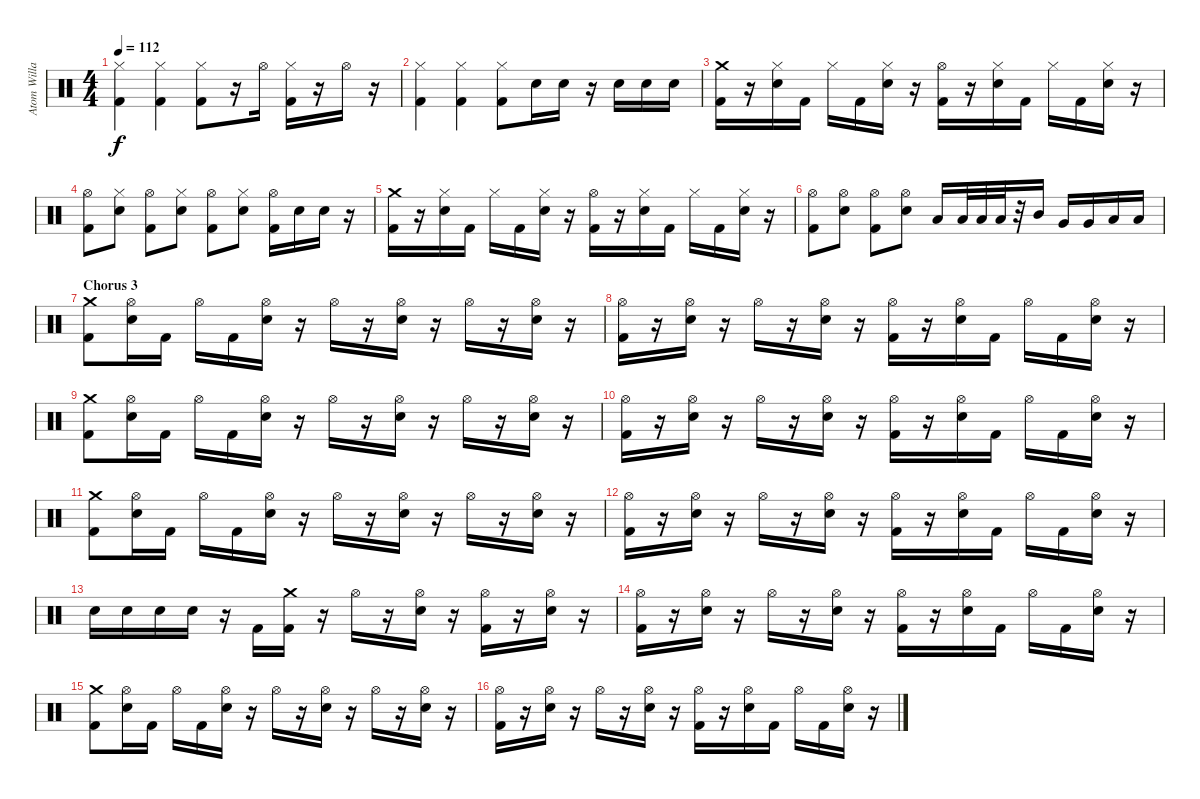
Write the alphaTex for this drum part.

\track ("Atom Willard Drums" "Atom Willa") {instrument percussion}
\staff {score}
\articulation defaults
\ts (4 4)
\tempo 112
\clef neutral
\ks c
("Hi-Hat (closed)" "Kick (hit) 2").4{dy f} ("Hi-Hat (closed)" "Kick (hit) 2").4 ("Hi-Hat (closed)" "Kick (hit) 2").8 r.16 "Hi-Hat (open)".16 ("Hi-Hat (closed)" "Kick (hit) 2").16 r.16 "Hi-Hat (open)".16 r.16 |
("Hi-Hat (closed)" "Kick (hit) 2").4 ("Hi-Hat (closed)" "Kick (hit) 2").4 ("Hi-Hat (closed)" "Kick (hit) 2").8 "Electric Snare (hit)".16 "Electric Snare (hit)".16 r.16 "Electric Snare (hit)".16 "Electric Snare (hit)".16 "Electric Snare (hit)".16 |
("Crash medium (hit)" "Kick (hit) 2").16 r.16 ("Hi-Hat (closed)" "Electric Snare (hit)").16 "Kick (hit) 2".16 "Hi-Hat (closed)".16 "Kick (hit) 2".16 ("Hi-Hat (closed)" "Electric Snare (hit)").16 r.16 ("Hi-Hat (open)" "Kick (hit) 2").16 r.16 ("Hi-Hat (closed)" "Electric Snare (hit)").16 "Kick (hit) 2".16 "Hi-Hat (closed)".16 "Kick (hit) 2".16 ("Hi-Hat (closed)" "Electric Snare (hit)").16 r.16 |
("Hi-Hat (open)" "Kick (hit) 2").8 ("Hi-Hat (closed)" "Electric Snare (hit)").8 ("Hi-Hat (open)" "Kick (hit) 2").8 ("Hi-Hat (closed)" "Electric Snare (hit)").8 ("Hi-Hat (open)" "Kick (hit) 2").8 ("Hi-Hat (closed)" "Electric Snare (hit)").8 ("Hi-Hat (open)" "Kick (hit) 2").16 "Electric Snare (hit)".16 "Electric Snare (hit)".16 r.16 |
("Crash medium (hit)" "Kick (hit) 2").16 r.16 ("Hi-Hat (closed)" "Electric Snare (hit)").16 "Kick (hit) 2".16 "Hi-Hat (closed)".16 "Kick (hit) 2".16 ("Hi-Hat (closed)" "Electric Snare (hit)").16 r.16 ("Hi-Hat (open)" "Kick (hit) 2").16 r.16 ("Hi-Hat (closed)" "Electric Snare (hit)").16 "Kick (hit) 2".16 "Hi-Hat (closed)".16 "Kick (hit) 2".16 ("Hi-Hat (closed)" "Electric Snare (hit)").16 r.16 |
("Hi-Hat (open)" "Kick (hit) 2").8 ("Hi-Hat (open)" "Electric Snare (hit)").8 ("Hi-Hat (open)" "Kick (hit) 2").8 ("Hi-Hat (open)" "Electric Snare (hit)").8 "Low Tom (hit)".16 "Low Tom (hit)".32 "Low Tom (hit)".32 "Low Tom (hit)".32 r.32 "Mid Tom (hit)".16 "Very Low Tom (hit)".16 "Very Low Tom (hit)".16 "Low Floor Tom (hit)".16 "Low Floor Tom (hit)".16 |
\section ("" "Chorus 3")
("Crash medium (hit)" "Kick (hit) 2").8 ("Hi-Hat (open)" "Electric Snare (hit)").16 "Kick (hit) 2".16 "Hi-Hat (open)".16 "Kick (hit) 2".16 ("Hi-Hat (open)" "Electric Snare (hit)").16 r.16 "Hi-Hat (open)".16 r.16 ("Hi-Hat (open)" "Electric Snare (hit)").16 r.16 "Hi-Hat (open)".16 r.16 ("Hi-Hat (open)" "Electric Snare (hit)").16 r.16 |
("Hi-Hat (open)" "Kick (hit) 2").16 r.16 ("Hi-Hat (open)" "Electric Snare (hit)").16 r.16 "Hi-Hat (open)".16 r.16 ("Hi-Hat (open)" "Electric Snare (hit)").16 r.16 ("Hi-Hat (open)" "Kick (hit) 2").16 r.16 ("Hi-Hat (open)" "Electric Snare (hit)").16 "Kick (hit) 2".16 "Hi-Hat (open)".16 "Kick (hit) 2".16 ("Hi-Hat (open)" "Electric Snare (hit)").16 r.16 |
("Crash medium (hit)" "Kick (hit) 2").8 ("Hi-Hat (open)" "Electric Snare (hit)").16 "Kick (hit) 2".16 "Hi-Hat (open)".16 "Kick (hit) 2".16 ("Hi-Hat (open)" "Electric Snare (hit)").16 r.16 "Hi-Hat (open)".16 r.16 ("Hi-Hat (open)" "Electric Snare (hit)").16 r.16 "Hi-Hat (open)".16 r.16 ("Hi-Hat (open)" "Electric Snare (hit)").16 r.16 |
("Hi-Hat (open)" "Kick (hit) 2").16 r.16 ("Hi-Hat (open)" "Electric Snare (hit)").16 r.16 "Hi-Hat (open)".16 r.16 ("Hi-Hat (open)" "Electric Snare (hit)").16 r.16 ("Hi-Hat (open)" "Kick (hit) 2").16 r.16 ("Hi-Hat (open)" "Electric Snare (hit)").16 "Kick (hit) 2".16 "Hi-Hat (open)".16 "Kick (hit) 2".16 ("Hi-Hat (open)" "Electric Snare (hit)").16 r.16 |
("Crash medium (hit)" "Kick (hit) 2").8 ("Hi-Hat (open)" "Electric Snare (hit)").16 "Kick (hit) 2".16 "Hi-Hat (open)".16 "Kick (hit) 2".16 ("Hi-Hat (open)" "Electric Snare (hit)").16 r.16 "Hi-Hat (open)".16 r.16 ("Hi-Hat (open)" "Electric Snare (hit)").16 r.16 "Hi-Hat (open)".16 r.16 ("Hi-Hat (open)" "Electric Snare (hit)").16 r.16 |
("Hi-Hat (open)" "Kick (hit) 2").16 r.16 ("Hi-Hat (open)" "Electric Snare (hit)").16 r.16 "Hi-Hat (open)".16 r.16 ("Hi-Hat (open)" "Electric Snare (hit)").16 r.16 ("Hi-Hat (open)" "Kick (hit) 2").16 r.16 ("Hi-Hat (open)" "Electric Snare (hit)").16 "Kick (hit) 2".16 "Hi-Hat (open)".16 "Kick (hit) 2".16 ("Hi-Hat (open)" "Electric Snare (hit)").16 r.16 |
"Electric Snare (hit)".16 "Electric Snare (hit)".16 "Electric Snare (hit)".16 "Electric Snare (hit)".16 r.16 "Kick (hit) 2".16 ("Crash medium (hit)" "Kick (hit) 2").16 r.16 "Hi-Hat (open)".16 r.16 ("Hi-Hat (open)" "Electric Snare (hit)").16 r.16 ("Hi-Hat (open)" "Kick (hit) 2").16 r.16 ("Hi-Hat (open)" "Electric Snare (hit)").16 r.16 |
("Hi-Hat (open)" "Kick (hit) 2").16 r.16 ("Hi-Hat (open)" "Electric Snare (hit)").16 r.16 "Hi-Hat (open)".16 r.16 ("Hi-Hat (open)" "Electric Snare (hit)").16 r.16 ("Hi-Hat (open)" "Kick (hit) 2").16 r.16 ("Hi-Hat (open)" "Electric Snare (hit)").16 "Kick (hit) 2".16 "Hi-Hat (open)".16 "Kick (hit) 2".16 ("Hi-Hat (open)" "Electric Snare (hit)").16 r.16 |
("Crash medium (hit)" "Kick (hit) 2").8 ("Hi-Hat (open)" "Electric Snare (hit)").16 "Kick (hit) 2".16 "Hi-Hat (open)".16 "Kick (hit) 2".16 ("Hi-Hat (open)" "Electric Snare (hit)").16 r.16 "Hi-Hat (open)".16 r.16 ("Hi-Hat (open)" "Electric Snare (hit)").16 r.16 "Hi-Hat (open)".16 r.16 ("Hi-Hat (open)" "Electric Snare (hit)").16 r.16 |
("Hi-Hat (open)" "Kick (hit) 2").16 r.16 ("Hi-Hat (open)" "Electric Snare (hit)").16 r.16 "Hi-Hat (open)".16 r.16 ("Hi-Hat (open)" "Electric Snare (hit)").16 r.16 ("Hi-Hat (open)" "Kick (hit) 2").16 r.16 ("Hi-Hat (open)" "Electric Snare (hit)").16 "Kick (hit) 2".16 "Hi-Hat (open)".16 "Kick (hit) 2".16 ("Hi-Hat (open)" "Electric Snare (hit)").16 r.16
